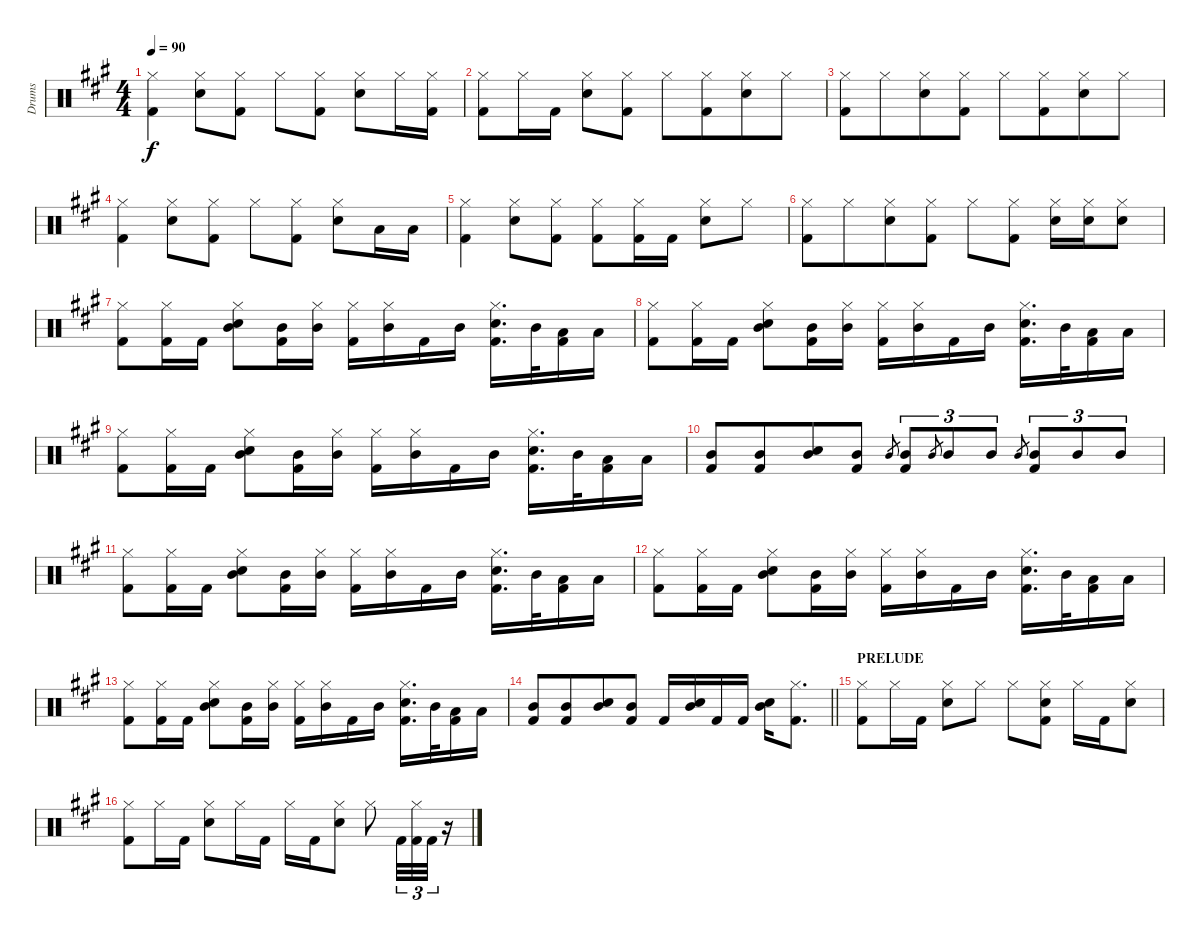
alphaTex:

\track ("Drums" "Drums") {instrument percussion}
\staff {score}
\articulation defaults
\ts (4 4)
\tempo 90
\clef neutral
\ks f#minor
("Hi-Hat (closed)" "Kick (hit) 2").4{dy f} ("Hi-Hat (closed)" "Electric Snare (hit)").8 ("Hi-Hat (closed)" "Kick (hit) 2").8 "Hi-Hat (closed)".8 ("Hi-Hat (closed)" "Kick (hit) 2").8 ("Hi-Hat (closed)" "Electric Snare (hit)").8 "Hi-Hat (closed)".16 ("Hi-Hat (closed)" "Kick (hit) 2").16 |
("Hi-Hat (closed)" "Kick (hit) 2").8 "Hi-Hat (closed)".16 "Kick (hit) 2".16{beam split} ("Hi-Hat (closed)" "Electric Snare (hit)").8 ("Hi-Hat (closed)" "Kick (hit) 2").8{beam split} "Hi-Hat (closed)".8 ("Hi-Hat (closed)" "Kick (hit) 2").8{beam merge} ("Hi-Hat (closed)" "Electric Snare (hit)").8 "Hi-Hat (closed)".8 |
("Hi-Hat (closed)" "Kick (hit) 2").8 "Hi-Hat (closed)".8{beam merge} ("Hi-Hat (closed)" "Electric Snare (hit)").8 ("Hi-Hat (closed)" "Kick (hit) 2").8{beam split} "Hi-Hat (closed)".8 ("Hi-Hat (closed)" "Kick (hit) 2").8{beam merge} ("Hi-Hat (closed)" "Electric Snare (hit)").8 "Hi-Hat (closed)".8 |
("Hi-Hat (closed)" "Kick (hit) 2").4 ("Hi-Hat (closed)" "Electric Snare (hit)").8 ("Hi-Hat (closed)" "Kick (hit) 2").8 "Hi-Hat (closed)".8 ("Hi-Hat (closed)" "Kick (hit) 2").8 ("Hi-Hat (closed)" "Electric Snare (hit)").8 "Low Tom (hit)".16 "Low Tom (hit)".16 |
("Hi-Hat (closed)" "Kick (hit) 2").4 ("Hi-Hat (closed)" "Electric Snare (hit)").8 ("Hi-Hat (closed)" "Kick (hit) 2").8 ("Hi-Hat (closed)" "Kick (hit) 2").8 ("Hi-Hat (closed)" "Kick (hit) 2").16 "Kick (hit) 2".16 ("Hi-Hat (closed)" "Electric Snare (hit)").8 "Hi-Hat (closed)".8 |
("Hi-Hat (closed)" "Kick (hit) 2").8 "Hi-Hat (closed)".8{beam merge} ("Hi-Hat (closed)" "Electric Snare (hit)").8 ("Hi-Hat (closed)" "Kick (hit) 2").8 "Hi-Hat (closed)".8 ("Hi-Hat (closed)" "Kick (hit) 2").8 ("Hi-Hat (closed)" "Electric Snare (hit)").16 ("Hi-Hat (closed)" "Electric Snare (hit)").16 ("Hi-Hat (closed)" "Electric Snare (hit)").8 |
("Hi-Hat (closed)" "Kick (hit) 2").8 ("Hi-Hat (closed)" "Kick (hit) 2").16 "Kick (hit) 2".16 ("Hi-Hat (closed)" "Mid Tom (hit)" "Electric Snare (hit)").8 ("Mid Tom (hit)" "Kick (hit) 2").16 ("Hi-Hat (closed)" "Mid Tom (hit)").16 ("Hi-Hat (closed)" "Kick (hit) 2").16 ("Hi-Hat (closed)" "Mid Tom (hit)").16 "Kick (hit) 2".16 "Mid Tom (hit)".16 ("Hi-Hat (closed)" "Electric Snare (hit)" "Kick (hit) 2").16{d} "Mid Tom (hit)".32{beam splitsecondary} ("Low Tom (hit)" "Kick (hit) 2").16 "Low Tom (hit)".16 |
("Hi-Hat (closed)" "Kick (hit) 2").8 ("Hi-Hat (closed)" "Kick (hit) 2").16 "Kick (hit) 2".16 ("Hi-Hat (closed)" "Mid Tom (hit)" "Electric Snare (hit)").8 ("Mid Tom (hit)" "Kick (hit) 2").16 ("Hi-Hat (closed)" "Mid Tom (hit)").16 ("Hi-Hat (closed)" "Kick (hit) 2").16 ("Hi-Hat (closed)" "Mid Tom (hit)").16 "Kick (hit) 2".16 "Mid Tom (hit)".16 ("Hi-Hat (closed)" "Electric Snare (hit)" "Kick (hit) 2").16{d} "Mid Tom (hit)".32{beam splitsecondary} ("Low Tom (hit)" "Kick (hit) 2").16 "Low Tom (hit)".16 |
("Hi-Hat (closed)" "Kick (hit) 2").8 ("Hi-Hat (closed)" "Kick (hit) 2").16 "Kick (hit) 2".16 ("Hi-Hat (closed)" "Mid Tom (hit)" "Electric Snare (hit)").8 ("Mid Tom (hit)" "Kick (hit) 2").16 ("Hi-Hat (closed)" "Mid Tom (hit)").16 ("Hi-Hat (closed)" "Kick (hit) 2").16 ("Hi-Hat (closed)" "Mid Tom (hit)").16 "Kick (hit) 2".16 "Mid Tom (hit)".16 ("Hi-Hat (closed)" "Electric Snare (hit)" "Kick (hit) 2").16{d} "Mid Tom (hit)".32{beam splitsecondary} ("Low Tom (hit)" "Kick (hit) 2").16 "Low Tom (hit)".16 |
("Mid Tom (hit)" "Kick (hit) 2").8 ("Mid Tom (hit)" "Kick (hit) 2").8{beam merge} ("Mid Tom (hit)" "Electric Snare (hit)").8 ("Mid Tom (hit)" "Kick (hit) 2").8 "Mid Tom (hit)".8{gr} ("Mid Tom (hit)" "Kick (hit) 2").8{tu (3 2)} "Mid Tom (hit)".8{gr} "Mid Tom (hit)".8{tu (3 2)} "Mid Tom (hit)".8{tu (3 2)} "Mid Tom (hit)".8{gr} ("Mid Tom (hit)" "Kick (hit) 2").8{tu (3 2)} "Mid Tom (hit)".8{tu (3 2)} "Mid Tom (hit)".8{tu (3 2)} |
("Hi-Hat (closed)" "Kick (hit) 2").8 ("Hi-Hat (closed)" "Kick (hit) 2").16 "Kick (hit) 2".16 ("Hi-Hat (closed)" "Mid Tom (hit)" "Electric Snare (hit)").8 ("Mid Tom (hit)" "Kick (hit) 2").16 ("Hi-Hat (closed)" "Mid Tom (hit)").16 ("Hi-Hat (closed)" "Kick (hit) 2").16 ("Hi-Hat (closed)" "Mid Tom (hit)").16 "Kick (hit) 2".16 "Mid Tom (hit)".16 ("Hi-Hat (closed)" "Electric Snare (hit)" "Kick (hit) 2").16{d} "Mid Tom (hit)".32{beam splitsecondary} ("Low Tom (hit)" "Kick (hit) 2").16 "Low Tom (hit)".16 |
("Hi-Hat (closed)" "Kick (hit) 2").8 ("Hi-Hat (closed)" "Kick (hit) 2").16 "Kick (hit) 2".16 ("Hi-Hat (closed)" "Mid Tom (hit)" "Electric Snare (hit)").8 ("Mid Tom (hit)" "Kick (hit) 2").16 ("Hi-Hat (closed)" "Mid Tom (hit)").16 ("Hi-Hat (closed)" "Kick (hit) 2").16 ("Hi-Hat (closed)" "Mid Tom (hit)").16 "Kick (hit) 2".16 "Mid Tom (hit)".16 ("Hi-Hat (closed)" "Electric Snare (hit)" "Kick (hit) 2").16{d} "Mid Tom (hit)".32{beam splitsecondary} ("Low Tom (hit)" "Kick (hit) 2").16 "Low Tom (hit)".16 |
("Hi-Hat (closed)" "Kick (hit) 2").8 ("Hi-Hat (closed)" "Kick (hit) 2").16 "Kick (hit) 2".16 ("Hi-Hat (closed)" "Mid Tom (hit)" "Electric Snare (hit)").8 ("Mid Tom (hit)" "Kick (hit) 2").16 ("Hi-Hat (closed)" "Mid Tom (hit)").16 ("Hi-Hat (closed)" "Kick (hit) 2").16 ("Hi-Hat (closed)" "Mid Tom (hit)").16 "Kick (hit) 2".16 "Mid Tom (hit)".16 ("Hi-Hat (closed)" "Electric Snare (hit)" "Kick (hit) 2").16{d} "Mid Tom (hit)".32{beam splitsecondary} ("Low Tom (hit)" "Kick (hit) 2").16 "Low Tom (hit)".16 |
\barLineRight lightlight
("Mid Tom (hit)" "Kick (hit) 2").8 ("Mid Tom (hit)" "Kick (hit) 2").8{beam merge} ("Mid Tom (hit)" "Electric Snare (hit)").8 ("Mid Tom (hit)" "Kick (hit) 2").8 "Kick (hit) 2".16 ("Mid Tom (hit)" "Electric Snare (hit)").16 "Kick (hit) 2".16 "Kick (hit) 2".16 ("Mid Tom (hit)" "Electric Snare (hit)").16 ("Hi-Hat (closed)" "Kick (hit) 2").8{d} |
\section ("" "PRELUDE")
("Hi-Hat (closed)" "Kick (hit) 2").8 "Hi-Hat (closed)".16 "Kick (hit) 2".16{beam split} ("Hi-Hat (closed)" "Electric Snare (hit)").8 "Hi-Hat (closed)".8 "Hi-Hat (closed)".8 ("Hi-Hat (closed)" "Electric Snare (hit)" "Kick (hit) 2").8 "Hi-Hat (closed)".16 "Kick (hit) 2".16 ("Hi-Hat (closed)" "Electric Snare (hit)").8 |
("Hi-Hat (closed)" "Kick (hit) 2").8 "Hi-Hat (closed)".16 "Kick (hit) 2".16{beam split} ("Hi-Hat (closed)" "Electric Snare (hit)").8 "Hi-Hat (closed)".16 "Kick (hit) 2".16 "Hi-Hat (closed)".16 "Kick (hit) 2".16 ("Hi-Hat (closed)" "Electric Snare (hit)").8 "Hi-Hat (closed)".8 "Kick (hit) 2".32{tu (3 2)} ("Hi-Hat (closed)" "Kick (hit) 2").32{tu (3 2)} "Kick (hit) 2".32{tu (3 2)} r.16
